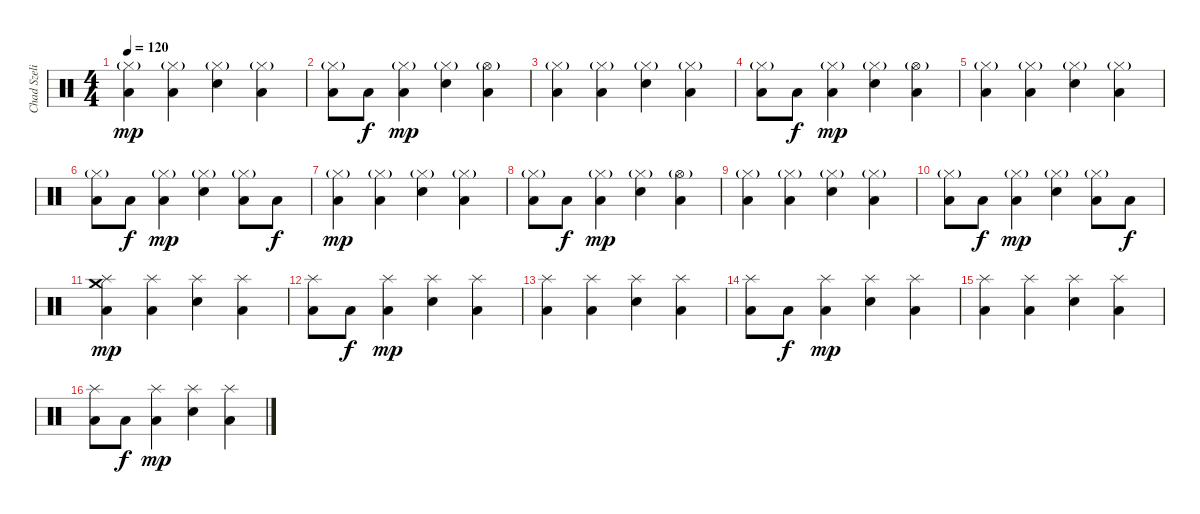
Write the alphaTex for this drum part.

\track ("Chad Szeliga (batteria)" "Chad Szeli") {instrument percussion}
\staff {score}
\articulation defaults
\ts (4 4)
\tempo 120
\clef neutral
\ks c
("Low Floor Tom (hit)" "Hi-Hat (closed)"{g}).4{dy mp} ("Low Floor Tom (hit)" "Hi-Hat (closed)"{g}).4 ("Snare (hit) 2" "Hi-Hat (closed)"{g}).4 ("Low Floor Tom (hit)" "Hi-Hat (closed)"{g}).4 |
("Low Floor Tom (hit)" "Hi-Hat (closed)"{g}).8 "Low Floor Tom (hit)".8{dy f} ("Low Floor Tom (hit)" "Hi-Hat (closed)"{g}).4{dy mp} ("Snare (hit) 2" "Hi-Hat (closed)"{g}).4 ("Low Floor Tom (hit)" "Hi-Hat (open)"{g}).4 |
("Low Floor Tom (hit)" "Hi-Hat (closed)"{g}).4 ("Low Floor Tom (hit)" "Hi-Hat (closed)"{g}).4 ("Snare (hit) 2" "Hi-Hat (closed)"{g}).4 ("Low Floor Tom (hit)" "Hi-Hat (closed)"{g}).4 |
("Low Floor Tom (hit)" "Hi-Hat (closed)"{g}).8 "Low Floor Tom (hit)".8{dy f} ("Low Floor Tom (hit)" "Hi-Hat (closed)"{g}).4{dy mp} ("Snare (hit) 2" "Hi-Hat (closed)"{g}).4 ("Low Floor Tom (hit)" "Hi-Hat (open)"{g}).4 |
("Low Floor Tom (hit)" "Hi-Hat (closed)"{g}).4 ("Low Floor Tom (hit)" "Hi-Hat (closed)"{g}).4 ("Snare (hit) 2" "Hi-Hat (closed)"{g}).4 ("Low Floor Tom (hit)" "Hi-Hat (closed)"{g}).4 |
("Low Floor Tom (hit)" "Hi-Hat (closed)"{g}).8 "Low Floor Tom (hit)".8{dy f} ("Low Floor Tom (hit)" "Hi-Hat (closed)"{g}).4{dy mp} ("Snare (hit) 2" "Hi-Hat (closed)"{g}).4 ("Low Floor Tom (hit)" "Hi-Hat (closed)"{g}).8 "Low Floor Tom (hit)".8{dy f} |
("Low Floor Tom (hit)" "Hi-Hat (closed)"{g}).4{dy mp} ("Low Floor Tom (hit)" "Hi-Hat (closed)"{g}).4 ("Snare (hit) 2" "Hi-Hat (closed)"{g}).4 ("Low Floor Tom (hit)" "Hi-Hat (closed)"{g}).4 |
("Low Floor Tom (hit)" "Hi-Hat (closed)"{g}).8 "Low Floor Tom (hit)".8{dy f} ("Low Floor Tom (hit)" "Hi-Hat (closed)"{g}).4{dy mp} ("Snare (hit) 2" "Hi-Hat (closed)"{g}).4 ("Low Floor Tom (hit)" "Hi-Hat (open)"{g}).4 |
("Low Floor Tom (hit)" "Hi-Hat (closed)"{g}).4 ("Low Floor Tom (hit)" "Hi-Hat (closed)"{g}).4 ("Snare (hit) 2" "Hi-Hat (closed)"{g}).4 ("Low Floor Tom (hit)" "Hi-Hat (closed)"{g}).4 |
("Low Floor Tom (hit)" "Hi-Hat (closed)"{g}).8 "Low Floor Tom (hit)".8{dy f} ("Low Floor Tom (hit)" "Hi-Hat (closed)"{g}).4{dy mp} ("Snare (hit) 2" "Hi-Hat (closed)"{g}).4 ("Low Floor Tom (hit)" "Hi-Hat (closed)"{g}).8 "Low Floor Tom (hit)".8{dy f} |
("Crash medium (hit)" "Low Floor Tom (hit)" "Splash (hit)").4{dy mp} ("Low Floor Tom (hit)" "Splash (hit)").4 ("Snare (hit) 2" "Splash (hit)").4 ("Low Floor Tom (hit)" "Splash (hit)").4 |
("Low Floor Tom (hit)" "Splash (hit)").8 "Low Floor Tom (hit)".8{dy f} ("Low Floor Tom (hit)" "Splash (hit)").4{dy mp} ("Snare (hit) 2" "Splash (hit)").4 ("Low Floor Tom (hit)" "Splash (hit)").4 |
("Low Floor Tom (hit)" "Splash (hit)").4 ("Low Floor Tom (hit)" "Splash (hit)").4 ("Snare (hit) 2" "Splash (hit)").4 ("Low Floor Tom (hit)" "Splash (hit)").4 |
("Low Floor Tom (hit)" "Splash (hit)").8 "Low Floor Tom (hit)".8{dy f} ("Low Floor Tom (hit)" "Splash (hit)").4{dy mp} ("Snare (hit) 2" "Splash (hit)").4 ("Low Floor Tom (hit)" "Splash (hit)").4 |
("Low Floor Tom (hit)" "Splash (hit)").4 ("Low Floor Tom (hit)" "Splash (hit)").4 ("Snare (hit) 2" "Splash (hit)").4 ("Low Floor Tom (hit)" "Splash (hit)").4 |
("Low Floor Tom (hit)" "Splash (hit)").8 "Low Floor Tom (hit)".8{dy f} ("Low Floor Tom (hit)" "Splash (hit)").4{dy mp} ("Snare (hit) 2" "Splash (hit)").4 ("Low Floor Tom (hit)" "Splash (hit)").4
